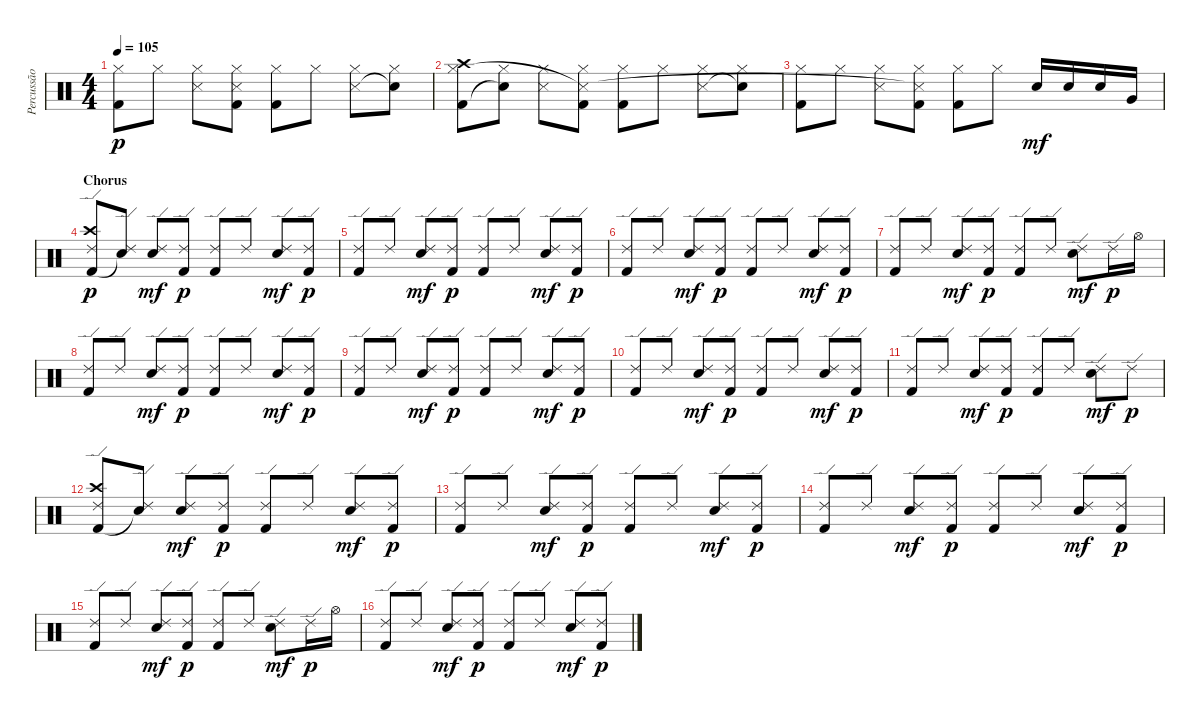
\track ("Percussão" "Percussão") {instrument percussion}
\staff {score}
\articulation defaults
\ts (4 4)
\tempo 105
\clef neutral
\ks c
("Kick (hit) 2" "Hi-Hat (closed)").8{dy p} "Hi-Hat (closed)".8 ("Hi-Hat (closed)" "Snare (side stick) 3").8 ("Kick (hit) 2" "Hi-Hat (closed)" "Snare (side stick) 3"{t}).8 ("Kick (hit) 2" "Hi-Hat (closed)").8 "Hi-Hat (closed)".8 ("Hi-Hat (closed)" "Snare (side stick) 3").8 ("Hi-Hat (closed)" "Snare (hit)"{t}).8 |
("Kick (hit) 2" "Crash high (hit)" "Hi-Hat (closed)").8 ("Snare (hit)"{t} "Hi-Hat (closed)").8 ("Hi-Hat (closed)" "Snare (side stick) 3").8 ("Kick (hit) 2" "Hi-Hat (closed)" "Snare (side stick) 3"{t}).8 ("Kick (hit) 2" "Hi-Hat (closed)").8 "Hi-Hat (closed)".8 ("Hi-Hat (closed)" "Snare (side stick) 3").8 ("Hi-Hat (closed)" "Snare (hit)"{t}).8 |
("Kick (hit) 2" "Hi-Hat (closed)").8 "Hi-Hat (closed)".8 ("Hi-Hat (closed)" "Snare (side stick) 3").8 ("Kick (hit) 2" "Hi-Hat (closed)" "Snare (side stick) 3"{t}).8 ("Kick (hit) 2" "Hi-Hat (closed)").8 "Hi-Hat (closed)".8 "Snare (hit) 2".16{dy mf} "Snare (hit) 2".16 "Electric Snare (hit)".16 "Very Low Tom (hit)".16 |
\section ("" "Chorus")
("Kick (hit) 2" "Crash high (hit)" "Ride (edge) 2").8{dy p} ("Snare (hit)"{t} "Ride (edge) 2").8 ("Ride (edge) 2" "Electric Snare (hit)").8{dy mf} ("Kick (hit) 2" "Ride (edge) 2").8{dy p} ("Kick (hit) 2" "Ride (edge) 2").8 "Ride (edge) 2".8 ("Ride (edge) 2" "Electric Snare (hit)").8{dy mf} ("Kick (hit) 2" "Ride (edge) 2").8{dy p} |
("Kick (hit) 2" "Ride (edge) 2").8 "Ride (edge) 2".8 ("Ride (edge) 2" "Electric Snare (hit)").8{dy mf} ("Kick (hit) 2" "Ride (edge) 2").8{dy p} ("Kick (hit) 2" "Ride (edge) 2").8 "Ride (edge) 2".8 ("Ride (edge) 2" "Electric Snare (hit)").8{dy mf} ("Kick (hit) 2" "Ride (edge) 2").8{dy p} |
("Kick (hit) 2" "Ride (edge) 2").8 "Ride (edge) 2".8 ("Ride (edge) 2" "Electric Snare (hit)").8{dy mf} ("Kick (hit) 2" "Ride (edge) 2").8{dy p} ("Kick (hit) 2" "Ride (edge) 2").8 "Ride (edge) 2".8 ("Ride (edge) 2" "Electric Snare (hit)").8{dy mf} ("Kick (hit) 2" "Ride (edge) 2").8{dy p} |
("Kick (hit) 2" "Ride (edge) 2").8 "Ride (edge) 2".8 ("Ride (edge) 2" "Electric Snare (hit)").8{dy mf} ("Kick (hit) 2" "Ride (edge) 2").8{dy p} ("Kick (hit) 2" "Ride (edge) 2").8 "Ride (edge) 2".8 ("Ride (edge) 2" "Electric Snare (hit)").8{dy mf} "Ride (edge) 2".16{dy p} "Hi-Hat (open)".16 |
("Kick (hit) 2" "Ride (edge) 2").8 "Ride (edge) 2".8 ("Ride (edge) 2" "Electric Snare (hit)").8{dy mf} ("Kick (hit) 2" "Ride (edge) 2").8{dy p} ("Kick (hit) 2" "Ride (edge) 2").8 "Ride (edge) 2".8 ("Ride (edge) 2" "Electric Snare (hit)").8{dy mf} ("Kick (hit) 2" "Ride (edge) 2").8{dy p} |
("Kick (hit) 2" "Ride (edge) 2").8 "Ride (edge) 2".8 ("Ride (edge) 2" "Electric Snare (hit)").8{dy mf} ("Kick (hit) 2" "Ride (edge) 2").8{dy p} ("Kick (hit) 2" "Ride (edge) 2").8 "Ride (edge) 2".8 ("Ride (edge) 2" "Electric Snare (hit)").8{dy mf} ("Kick (hit) 2" "Ride (edge) 2").8{dy p} |
("Kick (hit) 2" "Ride (edge) 2").8 "Ride (edge) 2".8 ("Ride (edge) 2" "Electric Snare (hit)").8{dy mf} ("Kick (hit) 2" "Ride (edge) 2").8{dy p} ("Kick (hit) 2" "Ride (edge) 2").8 "Ride (edge) 2".8 ("Ride (edge) 2" "Electric Snare (hit)").8{dy mf} ("Kick (hit) 2" "Ride (edge) 2").8{dy p} |
("Kick (hit) 2" "Ride (edge) 2").8 "Ride (edge) 2".8 ("Ride (edge) 2" "Electric Snare (hit)").8{dy mf} ("Kick (hit) 2" "Ride (edge) 2").8{dy p} ("Kick (hit) 2" "Ride (edge) 2").8 "Ride (edge) 2".8 ("Ride (edge) 2" "Electric Snare (hit)").8{dy mf} "Ride (edge) 2".8{dy p} |
("Kick (hit) 2" "Crash high (hit)" "Ride (edge) 2").8 ("Snare (hit)"{t} "Ride (edge) 2").8 ("Ride (edge) 2" "Electric Snare (hit)").8{dy mf} ("Kick (hit) 2" "Ride (edge) 2").8{dy p} ("Kick (hit) 2" "Ride (edge) 2").8 "Ride (edge) 2".8 ("Ride (edge) 2" "Electric Snare (hit)").8{dy mf} ("Kick (hit) 2" "Ride (edge) 2").8{dy p} |
("Kick (hit) 2" "Ride (edge) 2").8 "Ride (edge) 2".8 ("Ride (edge) 2" "Electric Snare (hit)").8{dy mf} ("Kick (hit) 2" "Ride (edge) 2").8{dy p} ("Kick (hit) 2" "Ride (edge) 2").8 "Ride (edge) 2".8 ("Ride (edge) 2" "Electric Snare (hit)").8{dy mf} ("Kick (hit) 2" "Ride (edge) 2").8{dy p} |
("Kick (hit) 2" "Ride (edge) 2").8 "Ride (edge) 2".8 ("Ride (edge) 2" "Electric Snare (hit)").8{dy mf} ("Kick (hit) 2" "Ride (edge) 2").8{dy p} ("Kick (hit) 2" "Ride (edge) 2").8 "Ride (edge) 2".8 ("Ride (edge) 2" "Electric Snare (hit)").8{dy mf} ("Kick (hit) 2" "Ride (edge) 2").8{dy p} |
("Kick (hit) 2" "Ride (edge) 2").8 "Ride (edge) 2".8 ("Ride (edge) 2" "Electric Snare (hit)").8{dy mf} ("Kick (hit) 2" "Ride (edge) 2").8{dy p} ("Kick (hit) 2" "Ride (edge) 2").8 "Ride (edge) 2".8 ("Ride (edge) 2" "Electric Snare (hit)").8{dy mf} "Ride (edge) 2".16{dy p} "Hi-Hat (open)".16 |
("Kick (hit) 2" "Ride (edge) 2").8 "Ride (edge) 2".8 ("Ride (edge) 2" "Electric Snare (hit)").8{dy mf} ("Kick (hit) 2" "Ride (edge) 2").8{dy p} ("Kick (hit) 2" "Ride (edge) 2").8 "Ride (edge) 2".8 ("Ride (edge) 2" "Electric Snare (hit)").8{dy mf} ("Kick (hit) 2" "Ride (edge) 2").8{dy p}
